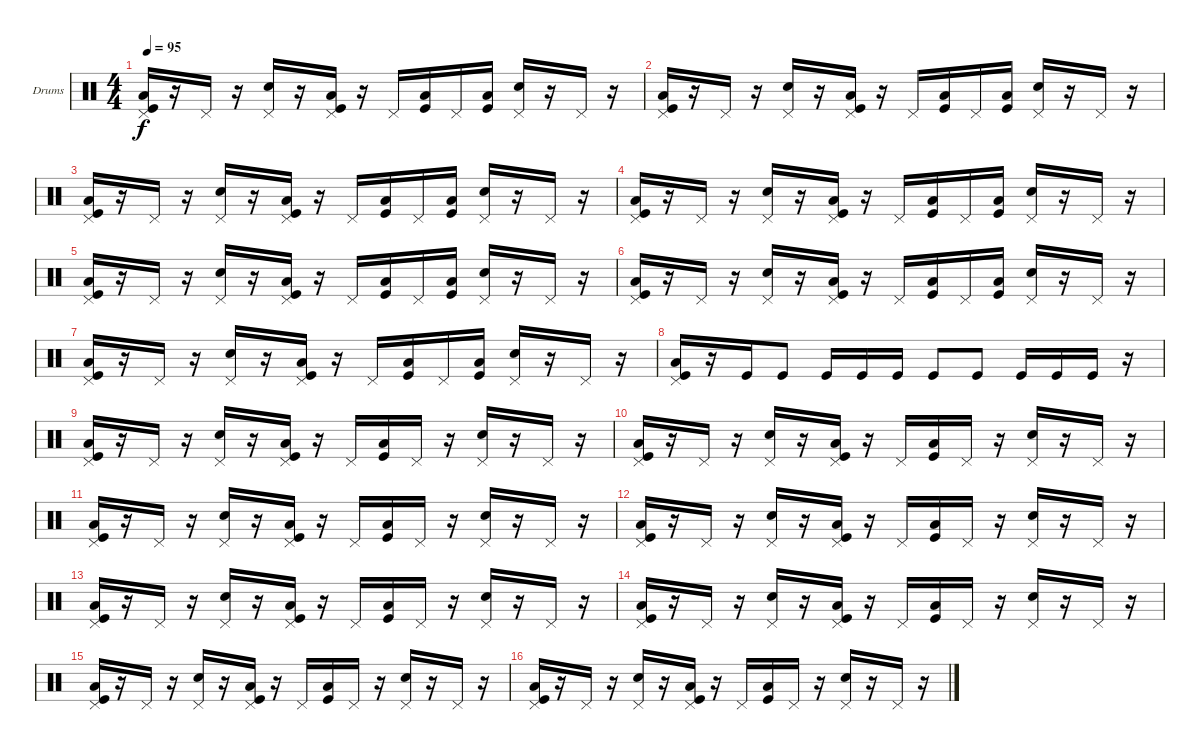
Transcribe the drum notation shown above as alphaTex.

\bracketExtendMode groupsimilarinstruments
\firstSystemTrackNameOrientation horizontal
\otherSystemsTrackNameOrientation horizontal
\track ("Drumkit" "Drums") {instrument percussion}
\staff {score}
\articulation defaults
\ts (4 4)
\tempo 95
\clef neutral
\ks c
("Pedal Hi-Hat (hit)" "Low Tom (hit)" "Kick (hit)").16{dy f} r.16 "Pedal Hi-Hat (hit)".16 r.16 ("Pedal Hi-Hat (hit)" "Snare (hit) 2").16 r.16 ("Pedal Hi-Hat (hit)" "Low Tom (hit)" "Kick (hit)").16 r.16 "Pedal Hi-Hat (hit)".16 ("Low Tom (hit)" "Kick (hit)").16 "Pedal Hi-Hat (hit)".16 ("Low Tom (hit)" "Kick (hit)").16 ("Pedal Hi-Hat (hit)" "Snare (hit) 2").16 r.16 "Pedal Hi-Hat (hit)".16 r.16 |
("Pedal Hi-Hat (hit)" "Low Tom (hit)" "Kick (hit)").16 r.16 "Pedal Hi-Hat (hit)".16 r.16 ("Pedal Hi-Hat (hit)" "Snare (hit) 2").16 r.16 ("Pedal Hi-Hat (hit)" "Low Tom (hit)" "Kick (hit)").16 r.16 "Pedal Hi-Hat (hit)".16 ("Low Tom (hit)" "Kick (hit)").16 "Pedal Hi-Hat (hit)".16 ("Low Tom (hit)" "Kick (hit)").16 ("Pedal Hi-Hat (hit)" "Snare (hit) 2").16 r.16 "Pedal Hi-Hat (hit)".16 r.16 |
("Pedal Hi-Hat (hit)" "Low Tom (hit)" "Kick (hit)").16 r.16 "Pedal Hi-Hat (hit)".16 r.16 ("Pedal Hi-Hat (hit)" "Snare (hit) 2").16 r.16 ("Pedal Hi-Hat (hit)" "Low Tom (hit)" "Kick (hit)").16 r.16 "Pedal Hi-Hat (hit)".16 ("Low Tom (hit)" "Kick (hit)").16 "Pedal Hi-Hat (hit)".16 ("Low Tom (hit)" "Kick (hit)").16 ("Pedal Hi-Hat (hit)" "Snare (hit) 2").16 r.16 "Pedal Hi-Hat (hit)".16 r.16 |
("Pedal Hi-Hat (hit)" "Low Tom (hit)" "Kick (hit)").16 r.16 "Pedal Hi-Hat (hit)".16 r.16 ("Pedal Hi-Hat (hit)" "Snare (hit) 2").16 r.16 ("Pedal Hi-Hat (hit)" "Low Tom (hit)" "Kick (hit)").16 r.16 "Pedal Hi-Hat (hit)".16 ("Low Tom (hit)" "Kick (hit)").16 "Pedal Hi-Hat (hit)".16 ("Low Tom (hit)" "Kick (hit)").16 ("Pedal Hi-Hat (hit)" "Snare (hit) 2").16 r.16 "Pedal Hi-Hat (hit)".16 r.16 |
("Pedal Hi-Hat (hit)" "Low Tom (hit)" "Kick (hit)").16 r.16 "Pedal Hi-Hat (hit)".16 r.16 ("Pedal Hi-Hat (hit)" "Snare (hit) 2").16 r.16 ("Pedal Hi-Hat (hit)" "Low Tom (hit)" "Kick (hit)").16 r.16 "Pedal Hi-Hat (hit)".16 ("Low Tom (hit)" "Kick (hit)").16 "Pedal Hi-Hat (hit)".16 ("Low Tom (hit)" "Kick (hit)").16 ("Pedal Hi-Hat (hit)" "Snare (hit) 2").16 r.16 "Pedal Hi-Hat (hit)".16 r.16 |
("Pedal Hi-Hat (hit)" "Low Tom (hit)" "Kick (hit)").16 r.16 "Pedal Hi-Hat (hit)".16 r.16 ("Pedal Hi-Hat (hit)" "Snare (hit) 2").16 r.16 ("Pedal Hi-Hat (hit)" "Low Tom (hit)" "Kick (hit)").16 r.16 "Pedal Hi-Hat (hit)".16 ("Low Tom (hit)" "Kick (hit)").16 "Pedal Hi-Hat (hit)".16 ("Low Tom (hit)" "Kick (hit)").16 ("Pedal Hi-Hat (hit)" "Snare (hit) 2").16 r.16 "Pedal Hi-Hat (hit)".16 r.16 |
("Pedal Hi-Hat (hit)" "Low Tom (hit)" "Kick (hit)").16 r.16 "Pedal Hi-Hat (hit)".16 r.16 ("Pedal Hi-Hat (hit)" "Snare (hit) 2").16 r.16 ("Pedal Hi-Hat (hit)" "Low Tom (hit)" "Kick (hit)").16 r.16 "Pedal Hi-Hat (hit)".16 ("Low Tom (hit)" "Kick (hit)").16 "Pedal Hi-Hat (hit)".16 ("Low Tom (hit)" "Kick (hit)").16 ("Pedal Hi-Hat (hit)" "Snare (hit) 2").16 r.16 "Pedal Hi-Hat (hit)".16 r.16 |
("Pedal Hi-Hat (hit)" "Low Tom (hit)" "Kick (hit)").16 r.16 "Kick (hit)".16 "Kick (hit)".8 "Kick (hit)".16 "Kick (hit)".16 "Kick (hit)".16 "Kick (hit)".8 "Kick (hit)".8 "Kick (hit)".16 "Kick (hit)".16 "Kick (hit)".16 r.16 |
("Pedal Hi-Hat (hit)" "Low Tom (hit)" "Kick (hit)").16 r.16 "Pedal Hi-Hat (hit)".16 r.16 ("Pedal Hi-Hat (hit)" "Snare (hit) 2").16 r.16 ("Pedal Hi-Hat (hit)" "Low Tom (hit)" "Kick (hit)").16 r.16 "Pedal Hi-Hat (hit)".16 ("Low Tom (hit)" "Kick (hit)").16 "Pedal Hi-Hat (hit)".16 r.16 ("Pedal Hi-Hat (hit)" "Snare (hit) 2").16 r.16 "Pedal Hi-Hat (hit)".16 r.16 |
("Pedal Hi-Hat (hit)" "Low Tom (hit)" "Kick (hit)").16 r.16 "Pedal Hi-Hat (hit)".16 r.16 ("Pedal Hi-Hat (hit)" "Snare (hit) 2").16 r.16 ("Pedal Hi-Hat (hit)" "Low Tom (hit)" "Kick (hit)").16 r.16 "Pedal Hi-Hat (hit)".16 ("Low Tom (hit)" "Kick (hit)").16 "Pedal Hi-Hat (hit)".16 r.16 ("Pedal Hi-Hat (hit)" "Snare (hit) 2").16 r.16 "Pedal Hi-Hat (hit)".16 r.16 |
("Pedal Hi-Hat (hit)" "Low Tom (hit)" "Kick (hit)").16 r.16 "Pedal Hi-Hat (hit)".16 r.16 ("Pedal Hi-Hat (hit)" "Snare (hit) 2").16 r.16 ("Pedal Hi-Hat (hit)" "Low Tom (hit)" "Kick (hit)").16 r.16 "Pedal Hi-Hat (hit)".16 ("Low Tom (hit)" "Kick (hit)").16 "Pedal Hi-Hat (hit)".16 r.16 ("Pedal Hi-Hat (hit)" "Snare (hit) 2").16 r.16 "Pedal Hi-Hat (hit)".16 r.16 |
("Pedal Hi-Hat (hit)" "Low Tom (hit)" "Kick (hit)").16 r.16 "Pedal Hi-Hat (hit)".16 r.16 ("Pedal Hi-Hat (hit)" "Snare (hit) 2").16 r.16 ("Pedal Hi-Hat (hit)" "Low Tom (hit)" "Kick (hit)").16 r.16 "Pedal Hi-Hat (hit)".16 ("Low Tom (hit)" "Kick (hit)").16 "Pedal Hi-Hat (hit)".16 r.16 ("Pedal Hi-Hat (hit)" "Snare (hit) 2").16 r.16 "Pedal Hi-Hat (hit)".16 r.16 |
("Pedal Hi-Hat (hit)" "Low Tom (hit)" "Kick (hit)").16 r.16 "Pedal Hi-Hat (hit)".16 r.16 ("Pedal Hi-Hat (hit)" "Snare (hit) 2").16 r.16 ("Pedal Hi-Hat (hit)" "Low Tom (hit)" "Kick (hit)").16 r.16 "Pedal Hi-Hat (hit)".16 ("Low Tom (hit)" "Kick (hit)").16 "Pedal Hi-Hat (hit)".16 r.16 ("Pedal Hi-Hat (hit)" "Snare (hit) 2").16 r.16 "Pedal Hi-Hat (hit)".16 r.16 |
("Pedal Hi-Hat (hit)" "Low Tom (hit)" "Kick (hit)").16 r.16 "Pedal Hi-Hat (hit)".16 r.16 ("Pedal Hi-Hat (hit)" "Snare (hit) 2").16 r.16 ("Pedal Hi-Hat (hit)" "Low Tom (hit)" "Kick (hit)").16 r.16 "Pedal Hi-Hat (hit)".16 ("Low Tom (hit)" "Kick (hit)").16 "Pedal Hi-Hat (hit)".16 r.16 ("Pedal Hi-Hat (hit)" "Snare (hit) 2").16 r.16 "Pedal Hi-Hat (hit)".16 r.16 |
("Pedal Hi-Hat (hit)" "Low Tom (hit)" "Kick (hit)").16 r.16 "Pedal Hi-Hat (hit)".16 r.16 ("Pedal Hi-Hat (hit)" "Snare (hit) 2").16 r.16 ("Pedal Hi-Hat (hit)" "Low Tom (hit)" "Kick (hit)").16 r.16 "Pedal Hi-Hat (hit)".16 ("Low Tom (hit)" "Kick (hit)").16 "Pedal Hi-Hat (hit)".16 r.16 ("Pedal Hi-Hat (hit)" "Snare (hit) 2").16 r.16 "Pedal Hi-Hat (hit)".16 r.16 |
("Pedal Hi-Hat (hit)" "Low Tom (hit)" "Kick (hit)").16 r.16 "Pedal Hi-Hat (hit)".16 r.16 ("Pedal Hi-Hat (hit)" "Snare (hit) 2").16 r.16 ("Pedal Hi-Hat (hit)" "Low Tom (hit)" "Kick (hit)").16 r.16 "Pedal Hi-Hat (hit)".16 ("Low Tom (hit)" "Kick (hit)").16 "Pedal Hi-Hat (hit)".16 r.16 ("Pedal Hi-Hat (hit)" "Snare (hit) 2").16 r.16 "Pedal Hi-Hat (hit)".16 r.16
